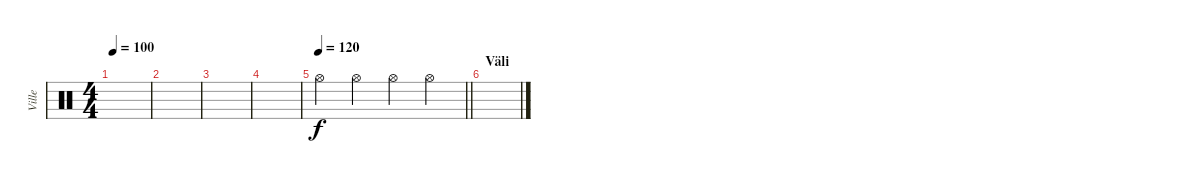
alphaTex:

\track ("Ville" "Ville") {instrument percussion}
\staff {score}
\articulation defaults
\ts (4 4)
\tempo 100
\clef neutral
\ks c
|
|
|
|
\tempo 120
\barLineRight lightlight "Hi-Hat (open)".4 "Hi-Hat (open)".4 "Hi-Hat (open)".4 "Hi-Hat (open)".4
|
\section ("" "Väli")
